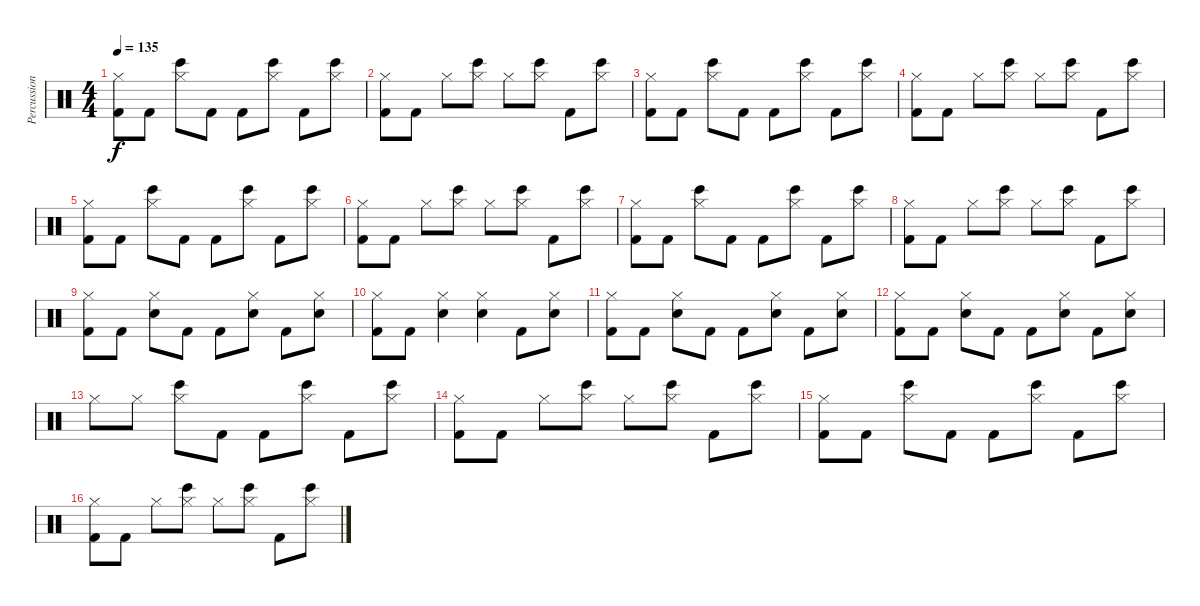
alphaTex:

\track ("Percussion" "Percussion") {instrument percussion}
\staff {score}
\articulation defaults
\ts (4 4)
\tempo 135
\clef neutral
\ks c
("Hi-Hat (closed)" "Kick (hit) 2").8{dy f} "Kick (hit) 2".8 ("Hi-Hat (closed)" "Bongo High (hit)").8 "Kick (hit) 2".8 "Kick (hit) 2".8 ("Hi-Hat (closed)" "Bongo High (hit)").8 "Kick (hit) 2".8 ("Hi-Hat (closed)" "Bongo High (hit)").8 |
("Hi-Hat (closed)" "Kick (hit) 2").8 "Kick (hit) 2".8 "Hi-Hat (closed)".8 ("Hi-Hat (closed)" "Bongo High (hit)").8 "Hi-Hat (closed)".8 ("Hi-Hat (closed)" "Bongo High (hit)").8 "Kick (hit) 2".8 ("Hi-Hat (closed)" "Bongo High (hit)").8 |
("Hi-Hat (closed)" "Kick (hit) 2").8 "Kick (hit) 2".8 ("Hi-Hat (closed)" "Bongo High (hit)").8 "Kick (hit) 2".8 "Kick (hit) 2".8 ("Hi-Hat (closed)" "Bongo High (hit)").8 "Kick (hit) 2".8 ("Hi-Hat (closed)" "Bongo High (hit)").8 |
("Hi-Hat (closed)" "Kick (hit) 2").8 "Kick (hit) 2".8 "Hi-Hat (closed)".8 ("Hi-Hat (closed)" "Bongo High (hit)").8 "Hi-Hat (closed)".8 ("Hi-Hat (closed)" "Bongo High (hit)").8 "Kick (hit) 2".8 ("Hi-Hat (closed)" "Bongo High (hit)").8 |
("Hi-Hat (closed)" "Kick (hit) 2").8 "Kick (hit) 2".8 ("Hi-Hat (closed)" "Bongo High (hit)").8 "Kick (hit) 2".8 "Kick (hit) 2".8 ("Hi-Hat (closed)" "Bongo High (hit)").8 "Kick (hit) 2".8 ("Hi-Hat (closed)" "Bongo High (hit)").8 |
("Hi-Hat (closed)" "Kick (hit) 2").8 "Kick (hit) 2".8 "Hi-Hat (closed)".8 ("Hi-Hat (closed)" "Bongo High (hit)").8 "Hi-Hat (closed)".8 ("Hi-Hat (closed)" "Bongo High (hit)").8 "Kick (hit) 2".8 ("Hi-Hat (closed)" "Bongo High (hit)").8 |
("Hi-Hat (closed)" "Kick (hit) 2").8 "Kick (hit) 2".8 ("Hi-Hat (closed)" "Bongo High (hit)").8 "Kick (hit) 2".8 "Kick (hit) 2".8 ("Hi-Hat (closed)" "Bongo High (hit)").8 "Kick (hit) 2".8 ("Hi-Hat (closed)" "Bongo High (hit)").8 |
("Hi-Hat (closed)" "Kick (hit) 2").8 "Kick (hit) 2".8 "Hi-Hat (closed)".8 ("Hi-Hat (closed)" "Bongo High (hit)").8 "Hi-Hat (closed)".8 ("Hi-Hat (closed)" "Bongo High (hit)").8 "Kick (hit) 2".8 ("Hi-Hat (closed)" "Bongo High (hit)").8 |
("Hi-Hat (closed)" "Kick (hit) 2").8 "Kick (hit) 2".8 ("Hi-Hat (closed)" "Snare (hit) 2").8 "Kick (hit) 2".8 "Kick (hit) 2".8 ("Hi-Hat (closed)" "Snare (hit) 2").8 "Kick (hit) 2".8 ("Hi-Hat (closed)" "Snare (hit) 2").8 |
("Hi-Hat (closed)" "Kick (hit) 2").8 "Kick (hit) 2".8 ("Hi-Hat (closed)" "Snare (hit) 2").4 ("Hi-Hat (closed)" "Snare (hit) 2").4 "Kick (hit) 2".8 ("Hi-Hat (closed)" "Snare (hit) 2").8 |
("Hi-Hat (closed)" "Kick (hit) 2").8 "Kick (hit) 2".8 ("Hi-Hat (closed)" "Snare (hit) 2").8 "Kick (hit) 2".8 "Kick (hit) 2".8 ("Hi-Hat (closed)" "Snare (hit) 2").8 "Kick (hit) 2".8 ("Hi-Hat (closed)" "Snare (hit) 2").8 |
("Hi-Hat (closed)" "Kick (hit) 2").8 "Kick (hit) 2".8 ("Hi-Hat (closed)" "Snare (hit) 2").8 "Kick (hit) 2".8 "Kick (hit) 2".8 ("Hi-Hat (closed)" "Snare (hit) 2").8 "Kick (hit) 2".8 ("Hi-Hat (closed)" "Snare (hit) 2").8 |
"Hi-Hat (closed)".8 "Hi-Hat (closed)".8 ("Hi-Hat (closed)" "Bongo High (hit)").8 "Kick (hit) 2".8 "Kick (hit) 2".8 ("Hi-Hat (closed)" "Bongo High (hit)").8 "Kick (hit) 2".8 ("Hi-Hat (closed)" "Bongo High (hit)").8 |
("Hi-Hat (closed)" "Kick (hit) 2").8 "Kick (hit) 2".8 "Hi-Hat (closed)".8 ("Hi-Hat (closed)" "Bongo High (hit)").8 "Hi-Hat (closed)".8 ("Hi-Hat (closed)" "Bongo High (hit)").8 "Kick (hit) 2".8 ("Hi-Hat (closed)" "Bongo High (hit)").8 |
("Hi-Hat (closed)" "Kick (hit) 2").8 "Kick (hit) 2".8 ("Hi-Hat (closed)" "Bongo High (hit)").8 "Kick (hit) 2".8 "Kick (hit) 2".8 ("Hi-Hat (closed)" "Bongo High (hit)").8 "Kick (hit) 2".8 ("Hi-Hat (closed)" "Bongo High (hit)").8 |
("Hi-Hat (closed)" "Kick (hit) 2").8 "Kick (hit) 2".8 "Hi-Hat (closed)".8 ("Hi-Hat (closed)" "Bongo High (hit)").8 "Hi-Hat (closed)".8 ("Hi-Hat (closed)" "Bongo High (hit)").8 "Kick (hit) 2".8 ("Hi-Hat (closed)" "Bongo High (hit)").8
